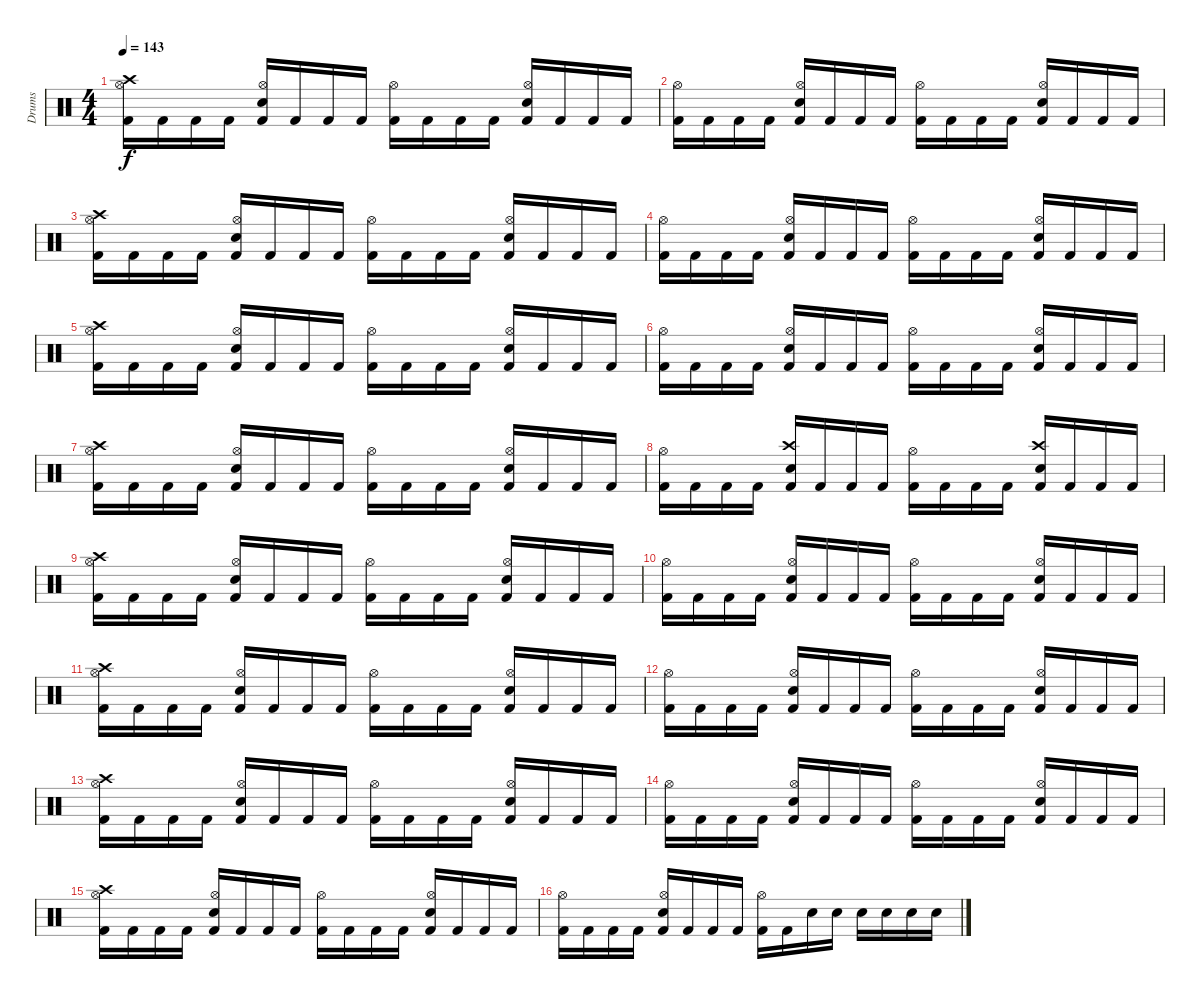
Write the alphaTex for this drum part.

\track ("Drums" "Drums") {instrument percussion}
\staff {score}
\articulation defaults
\ts (4 4)
\tempo 143
\clef neutral
\ks c
("Kick (hit) 2" "Hi-Hat (open)" "Crash high (hit)").16{dy f} "Kick (hit) 2".16 "Kick (hit) 2".16 "Kick (hit) 2".16 ("Kick (hit) 2" "Hi-Hat (open)" "Snare (hit) 2").16 "Kick (hit) 2".16 "Kick (hit) 2".16 "Kick (hit) 2".16 ("Kick (hit) 2" "Hi-Hat (open)").16 "Kick (hit) 2".16 "Kick (hit) 2".16 "Kick (hit) 2".16 ("Kick (hit) 2" "Hi-Hat (open)" "Snare (hit) 2").16 "Kick (hit) 2".16 "Kick (hit) 2".16 "Kick (hit) 2".16 |
("Kick (hit) 2" "Hi-Hat (open)").16 "Kick (hit) 2".16 "Kick (hit) 2".16 "Kick (hit) 2".16 ("Kick (hit) 2" "Hi-Hat (open)" "Snare (hit) 2").16 "Kick (hit) 2".16 "Kick (hit) 2".16 "Kick (hit) 2".16 ("Kick (hit) 2" "Hi-Hat (open)").16 "Kick (hit) 2".16 "Kick (hit) 2".16 "Kick (hit) 2".16 ("Kick (hit) 2" "Hi-Hat (open)" "Snare (hit) 2").16 "Kick (hit) 2".16 "Kick (hit) 2".16 "Kick (hit) 2".16 |
("Kick (hit) 2" "Hi-Hat (open)" "Crash high (hit)").16 "Kick (hit) 2".16 "Kick (hit) 2".16 "Kick (hit) 2".16 ("Kick (hit) 2" "Hi-Hat (open)" "Snare (hit) 2").16 "Kick (hit) 2".16 "Kick (hit) 2".16 "Kick (hit) 2".16 ("Kick (hit) 2" "Hi-Hat (open)").16 "Kick (hit) 2".16 "Kick (hit) 2".16 "Kick (hit) 2".16 ("Kick (hit) 2" "Hi-Hat (open)" "Snare (hit) 2").16 "Kick (hit) 2".16 "Kick (hit) 2".16 "Kick (hit) 2".16 |
("Kick (hit) 2" "Hi-Hat (open)").16 "Kick (hit) 2".16 "Kick (hit) 2".16 "Kick (hit) 2".16 ("Kick (hit) 2" "Hi-Hat (open)" "Snare (hit) 2").16 "Kick (hit) 2".16 "Kick (hit) 2".16 "Kick (hit) 2".16 ("Kick (hit) 2" "Hi-Hat (open)").16 "Kick (hit) 2".16 "Kick (hit) 2".16 "Kick (hit) 2".16 ("Kick (hit) 2" "Hi-Hat (open)" "Snare (hit) 2").16 "Kick (hit) 2".16 "Kick (hit) 2".16 "Kick (hit) 2".16 |
("Kick (hit) 2" "Hi-Hat (open)" "Crash high (hit)").16 "Kick (hit) 2".16 "Kick (hit) 2".16 "Kick (hit) 2".16 ("Kick (hit) 2" "Hi-Hat (open)" "Snare (hit) 2").16 "Kick (hit) 2".16 "Kick (hit) 2".16 "Kick (hit) 2".16 ("Kick (hit) 2" "Hi-Hat (open)").16 "Kick (hit) 2".16 "Kick (hit) 2".16 "Kick (hit) 2".16 ("Kick (hit) 2" "Hi-Hat (open)" "Snare (hit) 2").16 "Kick (hit) 2".16 "Kick (hit) 2".16 "Kick (hit) 2".16 |
("Kick (hit) 2" "Hi-Hat (open)").16 "Kick (hit) 2".16 "Kick (hit) 2".16 "Kick (hit) 2".16 ("Kick (hit) 2" "Hi-Hat (open)" "Snare (hit) 2").16 "Kick (hit) 2".16 "Kick (hit) 2".16 "Kick (hit) 2".16 ("Kick (hit) 2" "Hi-Hat (open)").16 "Kick (hit) 2".16 "Kick (hit) 2".16 "Kick (hit) 2".16 ("Kick (hit) 2" "Hi-Hat (open)" "Snare (hit) 2").16 "Kick (hit) 2".16 "Kick (hit) 2".16 "Kick (hit) 2".16 |
("Kick (hit) 2" "Hi-Hat (open)" "Crash high (hit)").16 "Kick (hit) 2".16 "Kick (hit) 2".16 "Kick (hit) 2".16 ("Kick (hit) 2" "Hi-Hat (open)" "Snare (hit) 2").16 "Kick (hit) 2".16 "Kick (hit) 2".16 "Kick (hit) 2".16 ("Kick (hit) 2" "Hi-Hat (open)").16 "Kick (hit) 2".16 "Kick (hit) 2".16 "Kick (hit) 2".16 ("Kick (hit) 2" "Hi-Hat (open)" "Snare (hit) 2").16 "Kick (hit) 2".16 "Kick (hit) 2".16 "Kick (hit) 2".16 |
("Kick (hit) 2" "Hi-Hat (open)").16 "Kick (hit) 2".16 "Kick (hit) 2".16 "Kick (hit) 2".16 ("Kick (hit) 2" "Crash high (hit)" "Snare (hit) 2").16 "Kick (hit) 2".16 "Kick (hit) 2".16 "Kick (hit) 2".16 ("Kick (hit) 2" "Hi-Hat (open)").16 "Kick (hit) 2".16 "Kick (hit) 2".16 "Kick (hit) 2".16 ("Kick (hit) 2" "Crash high (hit)" "Snare (hit) 2").16 "Kick (hit) 2".16 "Kick (hit) 2".16 "Kick (hit) 2".16 |
("Kick (hit) 2" "Hi-Hat (open)" "Crash high (hit)").16 "Kick (hit) 2".16 "Kick (hit) 2".16 "Kick (hit) 2".16 ("Kick (hit) 2" "Hi-Hat (open)" "Snare (hit) 2").16 "Kick (hit) 2".16 "Kick (hit) 2".16 "Kick (hit) 2".16 ("Kick (hit) 2" "Hi-Hat (open)").16 "Kick (hit) 2".16 "Kick (hit) 2".16 "Kick (hit) 2".16 ("Kick (hit) 2" "Hi-Hat (open)" "Snare (hit) 2").16 "Kick (hit) 2".16 "Kick (hit) 2".16 "Kick (hit) 2".16 |
("Kick (hit) 2" "Hi-Hat (open)").16 "Kick (hit) 2".16 "Kick (hit) 2".16 "Kick (hit) 2".16 ("Kick (hit) 2" "Hi-Hat (open)" "Snare (hit) 2").16 "Kick (hit) 2".16 "Kick (hit) 2".16 "Kick (hit) 2".16 ("Kick (hit) 2" "Hi-Hat (open)").16 "Kick (hit) 2".16 "Kick (hit) 2".16 "Kick (hit) 2".16 ("Kick (hit) 2" "Hi-Hat (open)" "Snare (hit) 2").16 "Kick (hit) 2".16 "Kick (hit) 2".16 "Kick (hit) 2".16 |
("Kick (hit) 2" "Hi-Hat (open)" "Crash high (hit)").16 "Kick (hit) 2".16 "Kick (hit) 2".16 "Kick (hit) 2".16 ("Kick (hit) 2" "Hi-Hat (open)" "Snare (hit) 2").16 "Kick (hit) 2".16 "Kick (hit) 2".16 "Kick (hit) 2".16 ("Kick (hit) 2" "Hi-Hat (open)").16 "Kick (hit) 2".16 "Kick (hit) 2".16 "Kick (hit) 2".16 ("Kick (hit) 2" "Hi-Hat (open)" "Snare (hit) 2").16 "Kick (hit) 2".16 "Kick (hit) 2".16 "Kick (hit) 2".16 |
("Kick (hit) 2" "Hi-Hat (open)").16 "Kick (hit) 2".16 "Kick (hit) 2".16 "Kick (hit) 2".16 ("Kick (hit) 2" "Hi-Hat (open)" "Snare (hit) 2").16 "Kick (hit) 2".16 "Kick (hit) 2".16 "Kick (hit) 2".16 ("Kick (hit) 2" "Hi-Hat (open)").16 "Kick (hit) 2".16 "Kick (hit) 2".16 "Kick (hit) 2".16 ("Kick (hit) 2" "Hi-Hat (open)" "Snare (hit) 2").16 "Kick (hit) 2".16 "Kick (hit) 2".16 "Kick (hit) 2".16 |
("Kick (hit) 2" "Hi-Hat (open)" "Crash high (hit)").16 "Kick (hit) 2".16 "Kick (hit) 2".16 "Kick (hit) 2".16 ("Kick (hit) 2" "Hi-Hat (open)" "Snare (hit) 2").16 "Kick (hit) 2".16 "Kick (hit) 2".16 "Kick (hit) 2".16 ("Kick (hit) 2" "Hi-Hat (open)").16 "Kick (hit) 2".16 "Kick (hit) 2".16 "Kick (hit) 2".16 ("Kick (hit) 2" "Hi-Hat (open)" "Snare (hit) 2").16 "Kick (hit) 2".16 "Kick (hit) 2".16 "Kick (hit) 2".16 |
("Kick (hit) 2" "Hi-Hat (open)").16 "Kick (hit) 2".16 "Kick (hit) 2".16 "Kick (hit) 2".16 ("Kick (hit) 2" "Hi-Hat (open)" "Snare (hit) 2").16 "Kick (hit) 2".16 "Kick (hit) 2".16 "Kick (hit) 2".16 ("Kick (hit) 2" "Hi-Hat (open)").16 "Kick (hit) 2".16 "Kick (hit) 2".16 "Kick (hit) 2".16 ("Kick (hit) 2" "Hi-Hat (open)" "Snare (hit) 2").16 "Kick (hit) 2".16 "Kick (hit) 2".16 "Kick (hit) 2".16 |
("Kick (hit) 2" "Hi-Hat (open)" "Crash high (hit)").16 "Kick (hit) 2".16 "Kick (hit) 2".16 "Kick (hit) 2".16 ("Kick (hit) 2" "Hi-Hat (open)" "Snare (hit) 2").16 "Kick (hit) 2".16 "Kick (hit) 2".16 "Kick (hit) 2".16 ("Kick (hit) 2" "Hi-Hat (open)").16 "Kick (hit) 2".16 "Kick (hit) 2".16 "Kick (hit) 2".16 ("Kick (hit) 2" "Hi-Hat (open)" "Snare (hit) 2").16 "Kick (hit) 2".16 "Kick (hit) 2".16 "Kick (hit) 2".16 |
("Kick (hit) 2" "Hi-Hat (open)").16 "Kick (hit) 2".16 "Kick (hit) 2".16 "Kick (hit) 2".16 ("Kick (hit) 2" "Hi-Hat (open)" "Snare (hit) 2").16 "Kick (hit) 2".16 "Kick (hit) 2".16 "Kick (hit) 2".16 ("Kick (hit) 2" "Hi-Hat (open)").16 "Kick (hit) 2".16 "Snare (hit) 2".16 "Snare (hit) 2".16 "Snare (hit) 2".16 "Snare (hit) 2".16 "Snare (hit) 2".16 "Snare (hit) 2".16
